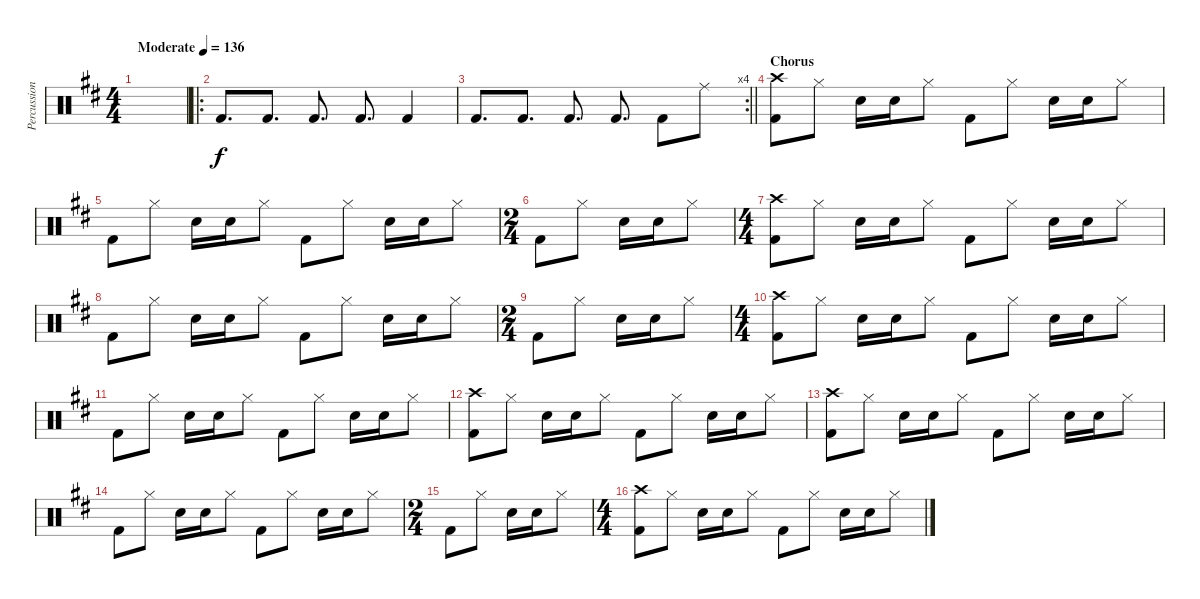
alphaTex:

\track ("Percussion" "Percussion") {instrument percussion}
\staff {score}
\articulation defaults
\ts (4 4)
\tempo (136 "Moderate")
\clef neutral
\ks d
|
\ro "Kick (hit) 2".8{d} "Kick (hit) 2".8{d} "Kick (hit) 2".8{d} "Kick (hit) 2".8{d} "Kick (hit) 2".4
|
\rc 4
\barLineRight lightlight "Kick (hit) 2".8{d} "Kick (hit) 2".8{d} "Kick (hit) 2".8{d} "Kick (hit) 2".8{d} "Kick (hit) 2".8 "Ride (middle)".8
|
\section ("" "Chorus")
("Crash high (hit)" "Kick (hit) 2").8 "Hi-Hat (closed)".8 "Electric Snare (hit)".16 "Electric Snare (hit)".16 "Hi-Hat (closed)".8 "Kick (hit) 2".8 "Hi-Hat (closed)".8 "Electric Snare (hit)".16 "Electric Snare (hit)".16 "Hi-Hat (closed)".8 |
"Kick (hit) 2".8 "Hi-Hat (closed)".8 "Electric Snare (hit)".16 "Electric Snare (hit)".16 "Hi-Hat (closed)".8 "Kick (hit) 2".8 "Hi-Hat (closed)".8 "Electric Snare (hit)".16 "Electric Snare (hit)".16 "Hi-Hat (closed)".8 |
\ts (2 4)
"Kick (hit) 2".8 "Hi-Hat (closed)".8 "Electric Snare (hit)".16 "Electric Snare (hit)".16 "Hi-Hat (closed)".8 |
\ts (4 4)
("Crash high (hit)" "Kick (hit) 2").8 "Hi-Hat (closed)".8 "Electric Snare (hit)".16 "Electric Snare (hit)".16 "Hi-Hat (closed)".8 "Kick (hit) 2".8 "Hi-Hat (closed)".8 "Electric Snare (hit)".16 "Electric Snare (hit)".16 "Hi-Hat (closed)".8 |
"Kick (hit) 2".8 "Hi-Hat (closed)".8 "Electric Snare (hit)".16 "Electric Snare (hit)".16 "Hi-Hat (closed)".8 "Kick (hit) 2".8 "Hi-Hat (closed)".8 "Electric Snare (hit)".16 "Electric Snare (hit)".16 "Hi-Hat (closed)".8 |
\ts (2 4)
"Kick (hit) 2".8 "Hi-Hat (closed)".8 "Electric Snare (hit)".16 "Electric Snare (hit)".16 "Hi-Hat (closed)".8 |
\ts (4 4)
("Crash high (hit)" "Kick (hit) 2").8 "Hi-Hat (closed)".8 "Electric Snare (hit)".16 "Electric Snare (hit)".16 "Hi-Hat (closed)".8 "Kick (hit) 2".8 "Hi-Hat (closed)".8 "Electric Snare (hit)".16 "Electric Snare (hit)".16 "Hi-Hat (closed)".8 |
"Kick (hit) 2".8 "Hi-Hat (closed)".8 "Electric Snare (hit)".16 "Electric Snare (hit)".16 "Hi-Hat (closed)".8 "Kick (hit) 2".8 "Hi-Hat (closed)".8 "Electric Snare (hit)".16 "Electric Snare (hit)".16 "Hi-Hat (closed)".8 |
("Crash high (hit)" "Kick (hit) 2").8 "Hi-Hat (closed)".8 "Electric Snare (hit)".16 "Electric Snare (hit)".16 "Hi-Hat (closed)".8 "Kick (hit) 2".8 "Hi-Hat (closed)".8 "Electric Snare (hit)".16 "Electric Snare (hit)".16 "Hi-Hat (closed)".8 |
("Crash high (hit)" "Kick (hit) 2").8 "Hi-Hat (closed)".8 "Electric Snare (hit)".16 "Electric Snare (hit)".16 "Hi-Hat (closed)".8 "Kick (hit) 2".8 "Hi-Hat (closed)".8 "Electric Snare (hit)".16 "Electric Snare (hit)".16 "Hi-Hat (closed)".8 |
"Kick (hit) 2".8 "Hi-Hat (closed)".8 "Electric Snare (hit)".16 "Electric Snare (hit)".16 "Hi-Hat (closed)".8 "Kick (hit) 2".8 "Hi-Hat (closed)".8 "Electric Snare (hit)".16 "Electric Snare (hit)".16 "Hi-Hat (closed)".8 |
\ts (2 4)
"Kick (hit) 2".8 "Hi-Hat (closed)".8 "Electric Snare (hit)".16 "Electric Snare (hit)".16 "Hi-Hat (closed)".8 |
\ts (4 4)
("Crash high (hit)" "Kick (hit) 2").8 "Hi-Hat (closed)".8 "Electric Snare (hit)".16 "Electric Snare (hit)".16 "Hi-Hat (closed)".8 "Kick (hit) 2".8 "Hi-Hat (closed)".8 "Electric Snare (hit)".16 "Electric Snare (hit)".16 "Hi-Hat (closed)".8
